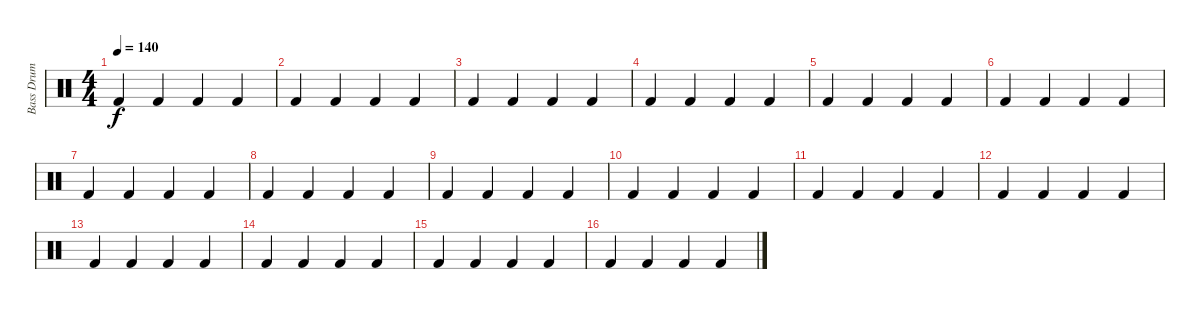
\track ("Bass Drum" "Bass Drum") {instrument percussion}
\staff {score}
\articulation defaults
\ts (4 4)
\tempo 140
\clef neutral
\ks c "Kick (hit) 2".4{dy f} "Kick (hit) 2".4 "Kick (hit) 2".4 "Kick (hit) 2".4
|
"Kick (hit) 2".4 "Kick (hit) 2".4 "Kick (hit) 2".4 "Kick (hit) 2".4 |
"Kick (hit) 2".4 "Kick (hit) 2".4 "Kick (hit) 2".4 "Kick (hit) 2".4 |
"Kick (hit) 2".4 "Kick (hit) 2".4 "Kick (hit) 2".4 "Kick (hit) 2".4 |
"Kick (hit) 2".4 "Kick (hit) 2".4 "Kick (hit) 2".4 "Kick (hit) 2".4 |
"Kick (hit) 2".4 "Kick (hit) 2".4 "Kick (hit) 2".4 "Kick (hit) 2".4 |
"Kick (hit) 2".4 "Kick (hit) 2".4 "Kick (hit) 2".4 "Kick (hit) 2".4 |
"Kick (hit) 2".4 "Kick (hit) 2".4 "Kick (hit) 2".4 "Kick (hit) 2".4 |
"Kick (hit) 2".4 "Kick (hit) 2".4 "Kick (hit) 2".4 "Kick (hit) 2".4 |
"Kick (hit) 2".4 "Kick (hit) 2".4 "Kick (hit) 2".4 "Kick (hit) 2".4 |
"Kick (hit) 2".4 "Kick (hit) 2".4 "Kick (hit) 2".4 "Kick (hit) 2".4 |
"Kick (hit) 2".4 "Kick (hit) 2".4 "Kick (hit) 2".4 "Kick (hit) 2".4 |
"Kick (hit) 2".4 "Kick (hit) 2".4 "Kick (hit) 2".4 "Kick (hit) 2".4 |
"Kick (hit) 2".4 "Kick (hit) 2".4 "Kick (hit) 2".4 "Kick (hit) 2".4 |
"Kick (hit) 2".4 "Kick (hit) 2".4 "Kick (hit) 2".4 "Kick (hit) 2".4 |
"Kick (hit) 2".4 "Kick (hit) 2".4 "Kick (hit) 2".4 "Kick (hit) 2".4
